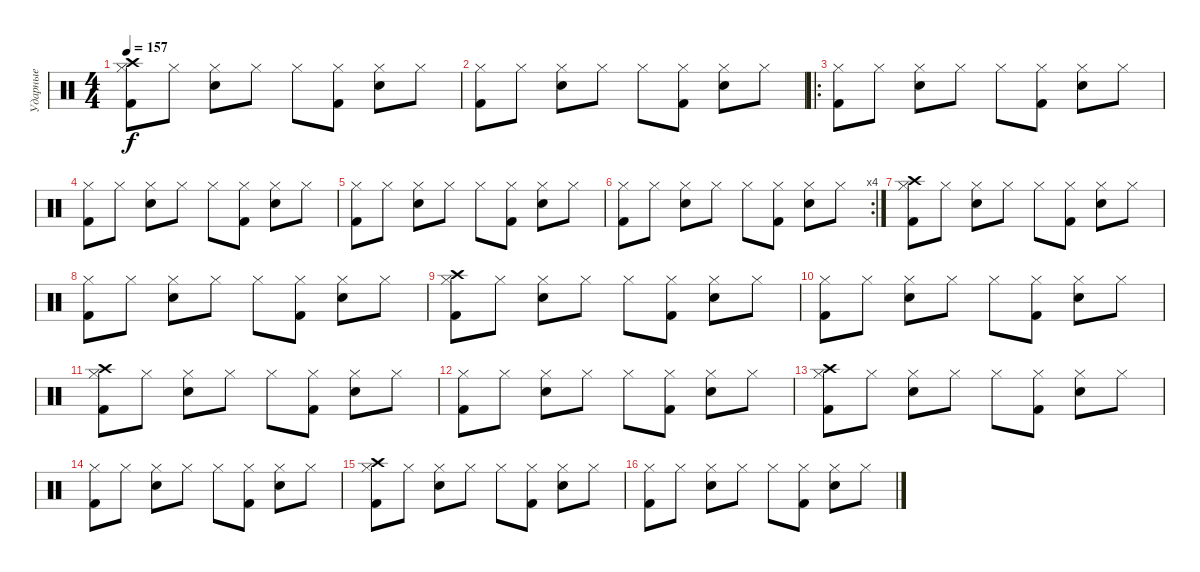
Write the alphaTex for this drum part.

\track ("Ударные" "Ударные") {instrument percussion}
\staff {score}
\articulation defaults
\ts (4 4)
\tempo 157
\clef neutral
\ks c
("Hi-Hat (closed)" "Kick (hit) 2" "Crash high (hit)").8{dy f} "Hi-Hat (closed)".8 ("Hi-Hat (closed)" "Electric Snare (hit)").8 "Hi-Hat (closed)".8 "Hi-Hat (closed)".8 ("Hi-Hat (closed)" "Kick (hit) 2").8 ("Hi-Hat (closed)" "Electric Snare (hit)").8 "Hi-Hat (closed)".8 |
("Hi-Hat (closed)" "Kick (hit) 2").8 "Hi-Hat (closed)".8 ("Hi-Hat (closed)" "Electric Snare (hit)").8 "Hi-Hat (closed)".8 "Hi-Hat (closed)".8 ("Hi-Hat (closed)" "Kick (hit) 2").8 ("Hi-Hat (closed)" "Electric Snare (hit)").8 "Hi-Hat (closed)".8 |
\ro
("Hi-Hat (closed)" "Kick (hit) 2").8 "Hi-Hat (closed)".8 ("Hi-Hat (closed)" "Electric Snare (hit)").8 "Hi-Hat (closed)".8 "Hi-Hat (closed)".8 ("Hi-Hat (closed)" "Kick (hit) 2").8 ("Hi-Hat (closed)" "Electric Snare (hit)").8 "Hi-Hat (closed)".8 |
("Hi-Hat (closed)" "Kick (hit) 2").8 "Hi-Hat (closed)".8 ("Hi-Hat (closed)" "Electric Snare (hit)").8 "Hi-Hat (closed)".8 "Hi-Hat (closed)".8 ("Hi-Hat (closed)" "Kick (hit) 2").8 ("Hi-Hat (closed)" "Electric Snare (hit)").8 "Hi-Hat (closed)".8 |
("Hi-Hat (closed)" "Kick (hit) 2").8 "Hi-Hat (closed)".8 ("Hi-Hat (closed)" "Electric Snare (hit)").8 "Hi-Hat (closed)".8 "Hi-Hat (closed)".8 ("Hi-Hat (closed)" "Kick (hit) 2").8 ("Hi-Hat (closed)" "Electric Snare (hit)").8 "Hi-Hat (closed)".8 |
\rc 4
("Hi-Hat (closed)" "Kick (hit) 2").8 "Hi-Hat (closed)".8 ("Hi-Hat (closed)" "Electric Snare (hit)").8 "Hi-Hat (closed)".8 "Hi-Hat (closed)".8 ("Hi-Hat (closed)" "Kick (hit) 2").8 ("Hi-Hat (closed)" "Electric Snare (hit)").8 "Hi-Hat (closed)".8 |
("Hi-Hat (closed)" "Kick (hit) 2" "Crash high (hit)").8 "Hi-Hat (closed)".8 ("Hi-Hat (closed)" "Electric Snare (hit)").8 "Hi-Hat (closed)".8 "Hi-Hat (closed)".8 ("Hi-Hat (closed)" "Kick (hit) 2").8 ("Hi-Hat (closed)" "Electric Snare (hit)").8 "Hi-Hat (closed)".8 |
("Hi-Hat (closed)" "Kick (hit) 2").8 "Hi-Hat (closed)".8 ("Hi-Hat (closed)" "Electric Snare (hit)").8 "Hi-Hat (closed)".8 "Hi-Hat (closed)".8 ("Hi-Hat (closed)" "Kick (hit) 2").8 ("Hi-Hat (closed)" "Electric Snare (hit)").8 "Hi-Hat (closed)".8 |
("Hi-Hat (closed)" "Kick (hit) 2" "Crash high (hit)").8 "Hi-Hat (closed)".8 ("Hi-Hat (closed)" "Electric Snare (hit)").8 "Hi-Hat (closed)".8 "Hi-Hat (closed)".8 ("Hi-Hat (closed)" "Kick (hit) 2").8 ("Hi-Hat (closed)" "Electric Snare (hit)").8 "Hi-Hat (closed)".8 |
("Hi-Hat (closed)" "Kick (hit) 2").8 "Hi-Hat (closed)".8 ("Hi-Hat (closed)" "Electric Snare (hit)").8 "Hi-Hat (closed)".8 "Hi-Hat (closed)".8 ("Hi-Hat (closed)" "Kick (hit) 2").8 ("Hi-Hat (closed)" "Electric Snare (hit)").8 "Hi-Hat (closed)".8 |
("Hi-Hat (closed)" "Kick (hit) 2" "Crash high (hit)").8 "Hi-Hat (closed)".8 ("Hi-Hat (closed)" "Electric Snare (hit)").8 "Hi-Hat (closed)".8 "Hi-Hat (closed)".8 ("Hi-Hat (closed)" "Kick (hit) 2").8 ("Hi-Hat (closed)" "Electric Snare (hit)").8 "Hi-Hat (closed)".8 |
("Hi-Hat (closed)" "Kick (hit) 2").8 "Hi-Hat (closed)".8 ("Hi-Hat (closed)" "Electric Snare (hit)").8 "Hi-Hat (closed)".8 "Hi-Hat (closed)".8 ("Hi-Hat (closed)" "Kick (hit) 2").8 ("Hi-Hat (closed)" "Electric Snare (hit)").8 "Hi-Hat (closed)".8 |
("Hi-Hat (closed)" "Kick (hit) 2" "Crash high (hit)").8 "Hi-Hat (closed)".8 ("Hi-Hat (closed)" "Electric Snare (hit)").8 "Hi-Hat (closed)".8 "Hi-Hat (closed)".8 ("Hi-Hat (closed)" "Kick (hit) 2").8 ("Hi-Hat (closed)" "Electric Snare (hit)").8 "Hi-Hat (closed)".8 |
("Hi-Hat (closed)" "Kick (hit) 2").8 "Hi-Hat (closed)".8 ("Hi-Hat (closed)" "Electric Snare (hit)").8 "Hi-Hat (closed)".8 "Hi-Hat (closed)".8 ("Hi-Hat (closed)" "Kick (hit) 2").8 ("Hi-Hat (closed)" "Electric Snare (hit)").8 "Hi-Hat (closed)".8 |
("Hi-Hat (closed)" "Kick (hit) 2" "Crash high (hit)").8 "Hi-Hat (closed)".8 ("Hi-Hat (closed)" "Electric Snare (hit)").8 "Hi-Hat (closed)".8 "Hi-Hat (closed)".8 ("Hi-Hat (closed)" "Kick (hit) 2").8 ("Hi-Hat (closed)" "Electric Snare (hit)").8 "Hi-Hat (closed)".8 |
("Hi-Hat (closed)" "Kick (hit) 2").8 "Hi-Hat (closed)".8 ("Hi-Hat (closed)" "Electric Snare (hit)").8 "Hi-Hat (closed)".8 "Hi-Hat (closed)".8 ("Hi-Hat (closed)" "Kick (hit) 2").8 ("Hi-Hat (closed)" "Electric Snare (hit)").8 "Hi-Hat (closed)".8
